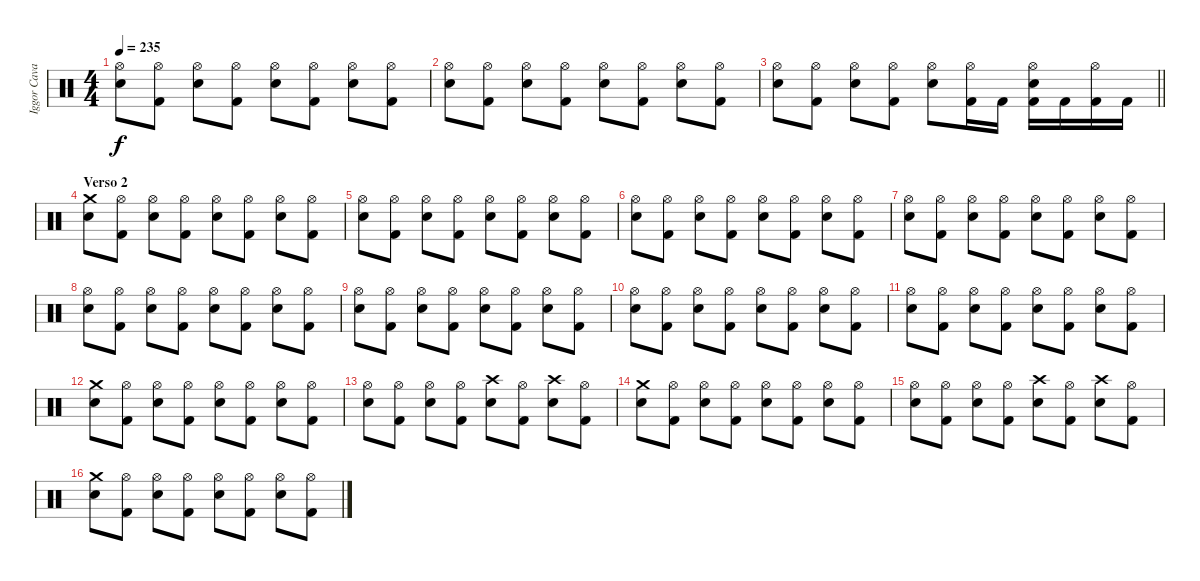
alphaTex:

\track ("Iggor Cavalera" "Iggor Cava") {instrument percussion}
\staff {score}
\articulation defaults
\ts (4 4)
\tempo 235
\clef neutral
\ks c
("Hi-Hat (open)" "Snare (hit) 2").8{dy f} ("Hi-Hat (open)" "Kick (hit) 2").8 ("Hi-Hat (open)" "Snare (hit) 2").8 ("Hi-Hat (open)" "Kick (hit) 2").8 ("Hi-Hat (open)" "Snare (hit) 2").8 ("Hi-Hat (open)" "Kick (hit) 2").8 ("Hi-Hat (open)" "Snare (hit) 2").8 ("Hi-Hat (open)" "Kick (hit) 2").8 |
("Hi-Hat (open)" "Snare (hit) 2").8 ("Hi-Hat (open)" "Kick (hit) 2").8 ("Hi-Hat (open)" "Snare (hit) 2").8 ("Hi-Hat (open)" "Kick (hit) 2").8 ("Hi-Hat (open)" "Snare (hit) 2").8 ("Hi-Hat (open)" "Kick (hit) 2").8 ("Hi-Hat (open)" "Snare (hit) 2").8 ("Hi-Hat (open)" "Kick (hit) 2").8 |
\barLineRight lightlight
("Hi-Hat (open)" "Snare (hit) 2").8 ("Hi-Hat (open)" "Kick (hit) 2").8 ("Hi-Hat (open)" "Snare (hit) 2").8 ("Hi-Hat (open)" "Kick (hit) 2").8 ("Hi-Hat (open)" "Snare (hit) 2").8 ("Hi-Hat (open)" "Kick (hit) 2").16 "Kick (hit) 2".16 ("Hi-Hat (open)" "Snare (hit) 2" "Kick (hit) 2").16 "Kick (hit) 2".16 ("Hi-Hat (open)" "Kick (hit) 2").16 "Kick (hit) 2".16 |
\section ("" "Verso 2")
("Crash medium (hit)" "Snare (hit) 2").8 ("Hi-Hat (open)" "Kick (hit) 2").8 ("Hi-Hat (open)" "Snare (hit) 2").8 ("Hi-Hat (open)" "Kick (hit) 2").8 ("Hi-Hat (open)" "Snare (hit) 2").8 ("Hi-Hat (open)" "Kick (hit) 2").8 ("Hi-Hat (open)" "Snare (hit) 2").8 ("Hi-Hat (open)" "Kick (hit) 2").8 |
("Hi-Hat (open)" "Snare (hit) 2").8 ("Hi-Hat (open)" "Kick (hit) 2").8 ("Hi-Hat (open)" "Snare (hit) 2").8 ("Hi-Hat (open)" "Kick (hit) 2").8 ("Hi-Hat (open)" "Snare (hit) 2").8 ("Hi-Hat (open)" "Kick (hit) 2").8 ("Hi-Hat (open)" "Snare (hit) 2").8 ("Hi-Hat (open)" "Kick (hit) 2").8 |
("Hi-Hat (open)" "Snare (hit) 2").8 ("Hi-Hat (open)" "Kick (hit) 2").8 ("Hi-Hat (open)" "Snare (hit) 2").8 ("Hi-Hat (open)" "Kick (hit) 2").8 ("Hi-Hat (open)" "Snare (hit) 2").8 ("Hi-Hat (open)" "Kick (hit) 2").8 ("Hi-Hat (open)" "Snare (hit) 2").8 ("Hi-Hat (open)" "Kick (hit) 2").8 |
("Hi-Hat (open)" "Snare (hit) 2").8 ("Hi-Hat (open)" "Kick (hit) 2").8 ("Hi-Hat (open)" "Snare (hit) 2").8 ("Hi-Hat (open)" "Kick (hit) 2").8 ("Hi-Hat (open)" "Snare (hit) 2").8 ("Hi-Hat (open)" "Kick (hit) 2").8 ("Hi-Hat (open)" "Snare (hit) 2").8 ("Hi-Hat (open)" "Kick (hit) 2").8 |
("Hi-Hat (open)" "Snare (hit) 2").8 ("Hi-Hat (open)" "Kick (hit) 2").8 ("Hi-Hat (open)" "Snare (hit) 2").8 ("Hi-Hat (open)" "Kick (hit) 2").8 ("Hi-Hat (open)" "Snare (hit) 2").8 ("Hi-Hat (open)" "Kick (hit) 2").8 ("Hi-Hat (open)" "Snare (hit) 2").8 ("Hi-Hat (open)" "Kick (hit) 2").8 |
("Hi-Hat (open)" "Snare (hit) 2").8 ("Hi-Hat (open)" "Kick (hit) 2").8 ("Hi-Hat (open)" "Snare (hit) 2").8 ("Hi-Hat (open)" "Kick (hit) 2").8 ("Hi-Hat (open)" "Snare (hit) 2").8 ("Hi-Hat (open)" "Kick (hit) 2").8 ("Hi-Hat (open)" "Snare (hit) 2").8 ("Hi-Hat (open)" "Kick (hit) 2").8 |
("Hi-Hat (open)" "Snare (hit) 2").8 ("Hi-Hat (open)" "Kick (hit) 2").8 ("Hi-Hat (open)" "Snare (hit) 2").8 ("Hi-Hat (open)" "Kick (hit) 2").8 ("Hi-Hat (open)" "Snare (hit) 2").8 ("Hi-Hat (open)" "Kick (hit) 2").8 ("Hi-Hat (open)" "Snare (hit) 2").8 ("Hi-Hat (open)" "Kick (hit) 2").8 |
("Hi-Hat (open)" "Snare (hit) 2").8 ("Hi-Hat (open)" "Kick (hit) 2").8 ("Hi-Hat (open)" "Snare (hit) 2").8 ("Hi-Hat (open)" "Kick (hit) 2").8 ("Hi-Hat (open)" "Snare (hit) 2").8 ("Hi-Hat (open)" "Kick (hit) 2").8 ("Hi-Hat (open)" "Snare (hit) 2").8 ("Hi-Hat (open)" "Kick (hit) 2").8 |
("Crash medium (hit)" "Snare (hit) 2").8 ("Hi-Hat (open)" "Kick (hit) 2").8 ("Hi-Hat (open)" "Snare (hit) 2").8 ("Hi-Hat (open)" "Kick (hit) 2").8 ("Hi-Hat (open)" "Snare (hit) 2").8 ("Hi-Hat (open)" "Kick (hit) 2").8 ("Hi-Hat (open)" "Snare (hit) 2").8 ("Hi-Hat (open)" "Kick (hit) 2").8 |
("Hi-Hat (open)" "Snare (hit) 2").8 ("Hi-Hat (open)" "Kick (hit) 2").8 ("Hi-Hat (open)" "Snare (hit) 2").8 ("Hi-Hat (open)" "Kick (hit) 2").8 ("Crash high (hit)" "Snare (hit) 2").8 ("Hi-Hat (open)" "Kick (hit) 2").8 ("Crash high (hit)" "Snare (hit) 2").8 ("Hi-Hat (open)" "Kick (hit) 2").8 |
("Crash medium (hit)" "Snare (hit) 2").8 ("Hi-Hat (open)" "Kick (hit) 2").8 ("Hi-Hat (open)" "Snare (hit) 2").8 ("Hi-Hat (open)" "Kick (hit) 2").8 ("Hi-Hat (open)" "Snare (hit) 2").8 ("Hi-Hat (open)" "Kick (hit) 2").8 ("Hi-Hat (open)" "Snare (hit) 2").8 ("Hi-Hat (open)" "Kick (hit) 2").8 |
("Hi-Hat (open)" "Snare (hit) 2").8 ("Hi-Hat (open)" "Kick (hit) 2").8 ("Hi-Hat (open)" "Snare (hit) 2").8 ("Hi-Hat (open)" "Kick (hit) 2").8 ("Crash high (hit)" "Snare (hit) 2").8 ("Hi-Hat (open)" "Kick (hit) 2").8 ("Crash high (hit)" "Snare (hit) 2").8 ("Hi-Hat (open)" "Kick (hit) 2").8 |
("Crash medium (hit)" "Snare (hit) 2").8 ("Hi-Hat (open)" "Kick (hit) 2").8 ("Hi-Hat (open)" "Snare (hit) 2").8 ("Hi-Hat (open)" "Kick (hit) 2").8 ("Hi-Hat (open)" "Snare (hit) 2").8 ("Hi-Hat (open)" "Kick (hit) 2").8 ("Hi-Hat (open)" "Snare (hit) 2").8 ("Hi-Hat (open)" "Kick (hit) 2").8
